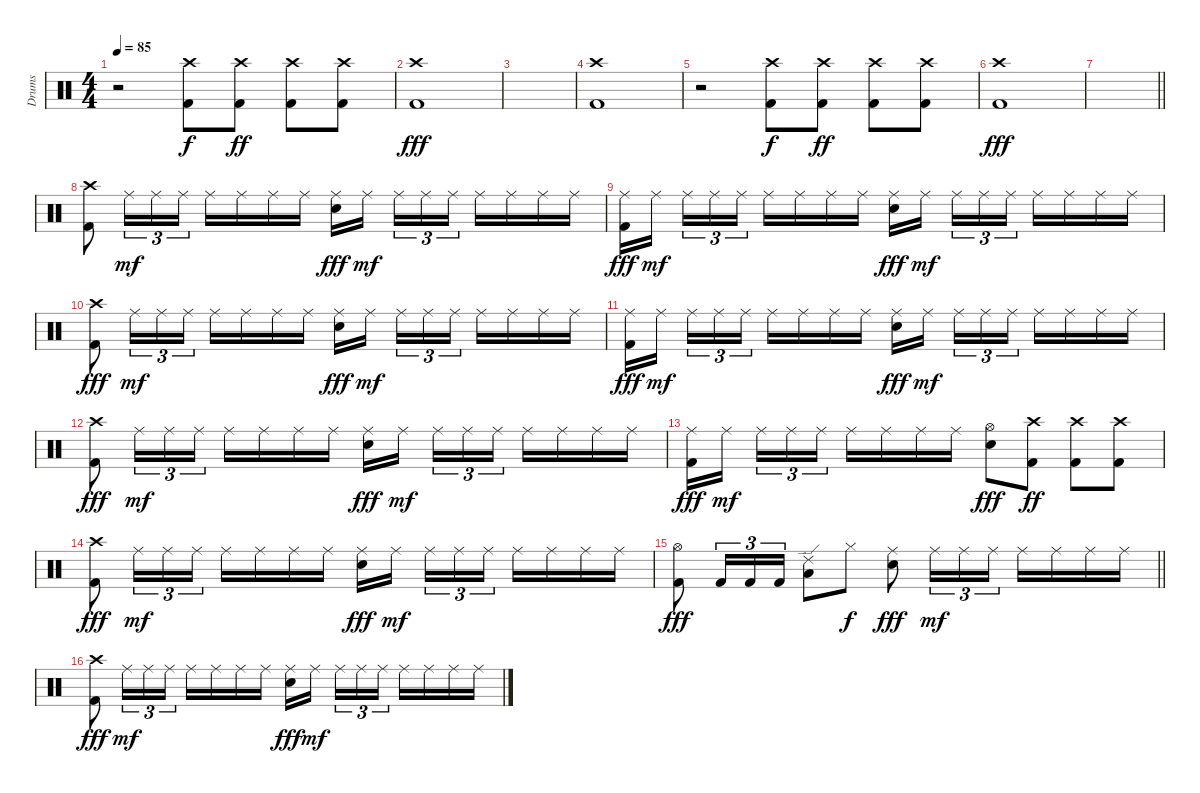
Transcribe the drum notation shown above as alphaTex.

\track ("Drums" "Drums") {instrument percussion}
\staff {score}
\articulation defaults
\ts (4 4)
\tempo 85
\clef neutral
\ks c
r.2{dy fff} ("Crash high (hit)" "Kick (hit) 2").8{dy f} ("Crash high (hit)" "Kick (hit) 2").8{dy ff} ("Crash high (hit)" "Kick (hit) 2").8 ("Crash high (hit)" "Kick (hit) 2").8 |
("Crash high (hit)" "Kick (hit) 2").1{dy fff} |
|
("Crash high (hit)" "Kick (hit) 2").1 |
r.2 ("Crash high (hit)" "Kick (hit) 2").8{dy f} ("Crash high (hit)" "Kick (hit) 2").8{dy ff} ("Crash high (hit)" "Kick (hit) 2").8 ("Crash high (hit)" "Kick (hit) 2").8 |
("Crash high (hit)" "Kick (hit) 2").1{dy fff} |
\barLineRight lightlight
|
\section ("" "")
("Crash high (hit)" "Kick (hit) 2").8 "Ride (middle)".16{tu (3 2) dy mf} "Ride (middle)".16{tu (3 2)} "Ride (middle)".16{tu (3 2)} "Ride (middle)".16 "Ride (middle)".16 "Ride (middle)".16 "Ride (middle)".16 ("Ride (middle)" "Snare (hit) 2").16{dy fff} "Ride (middle)".16{dy mf beam splitsecondary} "Ride (middle)".16{tu (3 2)} "Ride (middle)".16{tu (3 2)} "Ride (middle)".16{tu (3 2)} "Ride (middle)".16 "Ride (middle)".16 "Ride (middle)".16 "Ride (middle)".16 |
("Ride (middle)" "Kick (hit) 2").16{dy fff} "Ride (middle)".16{dy mf beam splitsecondary} "Ride (middle)".16{tu (3 2)} "Ride (middle)".16{tu (3 2)} "Ride (middle)".16{tu (3 2)} "Ride (middle)".16 "Ride (middle)".16 "Ride (middle)".16 "Ride (middle)".16 ("Ride (middle)" "Snare (hit) 2").16{dy fff} "Ride (middle)".16{dy mf beam splitsecondary} "Ride (middle)".16{tu (3 2)} "Ride (middle)".16{tu (3 2)} "Ride (middle)".16{tu (3 2)} "Ride (middle)".16 "Ride (middle)".16 "Ride (middle)".16 "Ride (middle)".16 |
("Crash high (hit)" "Kick (hit) 2").8{dy fff} "Ride (middle)".16{tu (3 2) dy mf} "Ride (middle)".16{tu (3 2)} "Ride (middle)".16{tu (3 2)} "Ride (middle)".16 "Ride (middle)".16 "Ride (middle)".16 "Ride (middle)".16 ("Ride (middle)" "Snare (hit) 2").16{dy fff} "Ride (middle)".16{dy mf beam splitsecondary} "Ride (middle)".16{tu (3 2)} "Ride (middle)".16{tu (3 2)} "Ride (middle)".16{tu (3 2)} "Ride (middle)".16 "Ride (middle)".16 "Ride (middle)".16 "Ride (middle)".16 |
("Ride (middle)" "Kick (hit) 2").16{dy fff} "Ride (middle)".16{dy mf beam splitsecondary} "Ride (middle)".16{tu (3 2)} "Ride (middle)".16{tu (3 2)} "Ride (middle)".16{tu (3 2)} "Ride (middle)".16 "Ride (middle)".16 "Ride (middle)".16 "Ride (middle)".16 ("Ride (middle)" "Snare (hit) 2").16{dy fff} "Ride (middle)".16{dy mf beam splitsecondary} "Ride (middle)".16{tu (3 2)} "Ride (middle)".16{tu (3 2)} "Ride (middle)".16{tu (3 2)} "Ride (middle)".16 "Ride (middle)".16 "Ride (middle)".16 "Ride (middle)".16 |
("Crash high (hit)" "Kick (hit) 2").8{dy fff} "Ride (middle)".16{tu (3 2) dy mf} "Ride (middle)".16{tu (3 2)} "Ride (middle)".16{tu (3 2)} "Ride (middle)".16 "Ride (middle)".16 "Ride (middle)".16 "Ride (middle)".16 ("Ride (middle)" "Snare (hit) 2").16{dy fff} "Ride (middle)".16{dy mf beam splitsecondary} "Ride (middle)".16{tu (3 2)} "Ride (middle)".16{tu (3 2)} "Ride (middle)".16{tu (3 2)} "Ride (middle)".16 "Ride (middle)".16 "Ride (middle)".16 "Ride (middle)".16 |
("Ride (middle)" "Kick (hit) 2").16{dy fff} "Ride (middle)".16{dy mf beam splitsecondary} "Ride (middle)".16{tu (3 2)} "Ride (middle)".16{tu (3 2)} "Ride (middle)".16{tu (3 2)} "Ride (middle)".16 "Ride (middle)".16 "Ride (middle)".16 "Ride (middle)".16 ("Hi-Hat (open)" "Snare (hit) 2").8{dy fff} ("Crash high (hit)" "Kick (hit) 2").8{dy ff} ("Crash high (hit)" "Kick (hit) 2").8 ("Crash high (hit)" "Kick (hit) 2").8 |
("Crash high (hit)" "Kick (hit) 2").8{dy fff} "Ride (middle)".16{tu (3 2) dy mf} "Ride (middle)".16{tu (3 2)} "Ride (middle)".16{tu (3 2)} "Ride (middle)".16 "Ride (middle)".16 "Ride (middle)".16 "Ride (middle)".16 ("Ride (middle)" "Snare (hit) 2").16{dy fff} "Ride (middle)".16{dy mf beam splitsecondary} "Ride (middle)".16{tu (3 2)} "Ride (middle)".16{tu (3 2)} "Ride (middle)".16{tu (3 2)} "Ride (middle)".16 "Ride (middle)".16 "Ride (middle)".16 "Ride (middle)".16 |
\barLineRight lightlight
("Hi-Hat (open)" "Kick (hit) 2").8{dy fff} "Kick (hit) 2".16{tu (3 2)} "Kick (hit) 2".16{tu (3 2)} "Kick (hit) 2".16{tu (3 2)} ("Ride (edge) 2" "Low Tom (hit)").8 "Hi-Hat (closed)".8{dy f} ("Ride (middle)" "Snare (hit) 2").8{dy fff} "Ride (middle)".16{tu (3 2) dy mf} "Ride (middle)".16{tu (3 2)} "Ride (middle)".16{tu (3 2)} "Ride (middle)".16 "Ride (middle)".16 "Ride (middle)".16 "Ride (middle)".16 |
("Crash high (hit)" "Kick (hit) 2").8{dy fff} "Ride (middle)".16{tu (3 2) dy mf} "Ride (middle)".16{tu (3 2)} "Ride (middle)".16{tu (3 2)} "Ride (middle)".16 "Ride (middle)".16 "Ride (middle)".16 "Ride (middle)".16 ("Ride (middle)" "Snare (hit) 2").16{dy fff} "Ride (middle)".16{dy mf beam splitsecondary} "Ride (middle)".16{tu (3 2)} "Ride (middle)".16{tu (3 2)} "Ride (middle)".16{tu (3 2)} "Ride (middle)".16 "Ride (middle)".16 "Ride (middle)".16 "Ride (middle)".16
